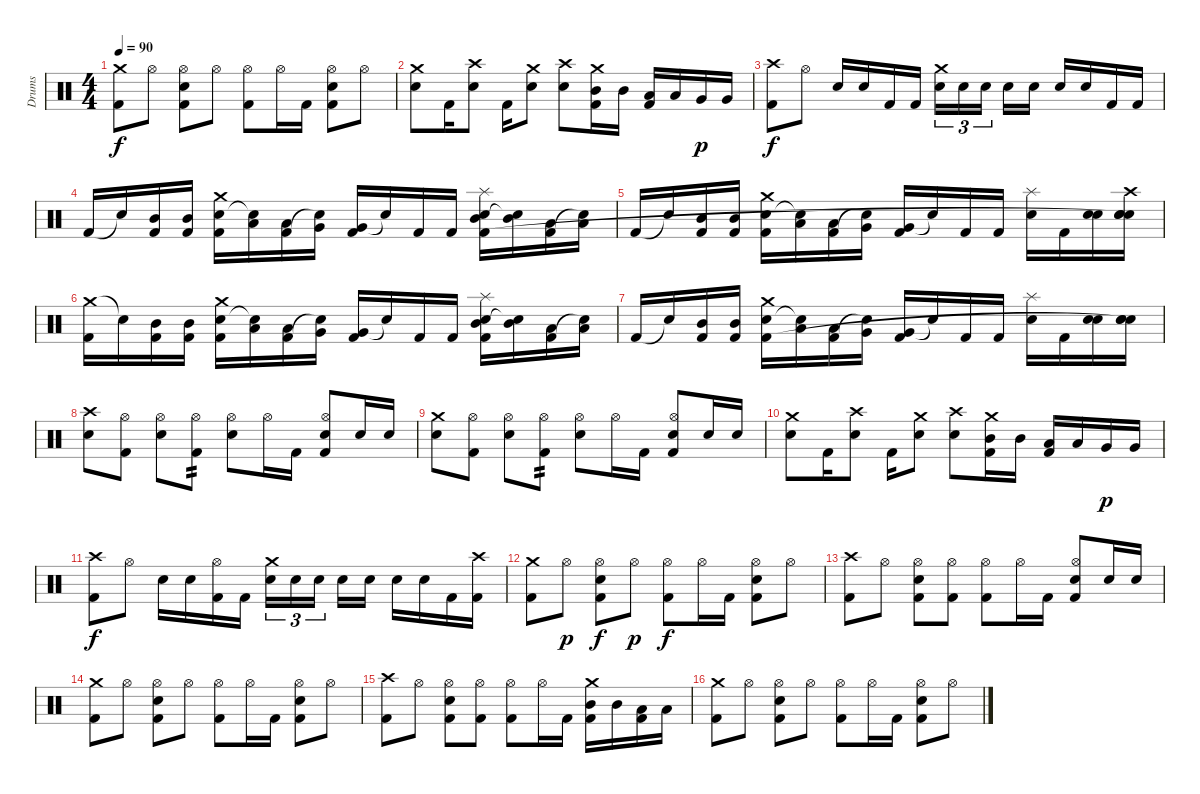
\track ("Drums" "Drums") {instrument percussion}
\staff {score}
\articulation defaults
\ts (4 4)
\tempo 90
\clef neutral
\ks c
("Crash medium (hit)" "Kick (hit) 2").8{dy f} "Hi-Hat (open)".8 ("Hi-Hat (open)" "Electric Snare (hit)" "Kick (hit) 2").8 "Hi-Hat (open)".8 ("Hi-Hat (open)" "Kick (hit) 2").8 "Hi-Hat (open)".16 "Kick (hit) 2".16 ("Hi-Hat (open)" "Electric Snare (hit)" "Kick (hit) 2").8 "Hi-Hat (open)".8 |
("Crash medium (hit)" "Electric Snare (hit)").8 "Kick (hit) 2".16 ("Crash high (hit)" "Electric Snare (hit)").8 "Kick (hit) 2".16 ("Crash medium (hit)" "Electric Snare (hit)").8 ("Crash high (hit)" "Electric Snare (hit)").8 ("Crash medium (hit)" "Mid Tom (hit)" "Kick (hit) 2").16 "Mid Tom (hit)".16 ("Low Tom (hit)" "Kick (hit) 2").16 "Low Tom (hit)".16 "Very Low Tom (hit)".16{dy p} "Very Low Tom (hit)".16 |
("Crash high (hit)" "Kick (hit) 2").8{dy f} "Hi-Hat (open)".8 "Electric Snare (hit)".16 "Electric Snare (hit)".16 "Kick (hit) 2".16 "Kick (hit) 2".16 ("Crash medium (hit)" "Electric Snare (hit)").16{tu (3 2)} "Electric Snare (hit)".16{tu (3 2)} "Electric Snare (hit)".16{tu (3 2) beam splitsecondary} "Electric Snare (hit)".16 "Electric Snare (hit)".16 "Electric Snare (hit)".16 "Electric Snare (hit)".16 "Kick (hit) 2".16 "Kick (hit) 2".16 |
"Kick (hit) 2".16 "Snare (hit)"{t}.16 ("Mid Tom (hit)" "Kick (hit) 2").16 ("Mid Tom (hit)" "Kick (hit) 2").16 ("Crash medium (hit)" "Electric Snare (hit)" "Kick (hit) 2").16 ("Low Tom (hit)" "Snare (hit)"{t}).16 ("Low Tom (hit)" "Kick (hit) 2").16 ("Very Low Tom (hit)" "Snare (hit)"{t}).16 ("Very Low Tom (hit)" "Kick (hit) 2").16 "Snare (hit)"{t}.16 "Kick (hit) 2".16 "Kick (hit) 2".16 ("Splash (hit)" "Mid Tom (hit)" "Electric Snare (hit)" "Kick (hit) 2").16 ("Mid Tom (hit)" "Snare (hit)"{t}).16 ("Low Floor Tom (hit)" "Kick (hit) 2").16 ("Low Floor Tom (hit)" "Snare (hit)"{t}).16 |
"Kick (hit) 2".16 "Snare (hit)"{t}.16 ("Mid Tom (hit)" "Kick (hit) 2").16 ("Mid Tom (hit)" "Kick (hit) 2").16 ("Crash medium (hit)" "Electric Snare (hit)" "Kick (hit) 2").16 ("Low Tom (hit)" "Snare (hit)"{t}).16 ("Low Tom (hit)" "Kick (hit) 2").16 ("Very Low Tom (hit)" "Snare (hit)"{t}).16 ("Very Low Tom (hit)" "Kick (hit) 2").16 "Snare (hit)"{t}.16 "Kick (hit) 2".16 "Kick (hit) 2".16 ("Splash (hit)" "Electric Snare (hit)").16 "Kick (hit) 2".16 ("Electric Snare (hit)" "Electric Snare (hit)").16 ("Crash high (hit)" "Electric Snare (hit)" "Electric Snare (hit)" "Snare (hit)"{t}).16 |
("Crash medium (hit)" "Kick (hit) 2").16 "Snare (hit)"{t}.16 ("Mid Tom (hit)" "Kick (hit) 2").16 ("Mid Tom (hit)" "Kick (hit) 2").16 ("Crash medium (hit)" "Electric Snare (hit)" "Kick (hit) 2").16 ("Low Tom (hit)" "Snare (hit)"{t}).16 ("Low Tom (hit)" "Kick (hit) 2").16 ("Very Low Tom (hit)" "Snare (hit)"{t}).16 ("Very Low Tom (hit)" "Kick (hit) 2").16 "Snare (hit)"{t}.16 "Kick (hit) 2".16 "Kick (hit) 2".16 ("Splash (hit)" "Mid Tom (hit)" "Electric Snare (hit)" "Kick (hit) 2").16 ("Mid Tom (hit)" "Snare (hit)"{t}).16 ("Low Floor Tom (hit)" "Kick (hit) 2").16 ("Low Floor Tom (hit)" "Snare (hit)"{t}).16 |
"Kick (hit) 2".16 "Snare (hit)"{t}.16 ("Mid Tom (hit)" "Kick (hit) 2").16 ("Mid Tom (hit)" "Kick (hit) 2").16 ("Crash medium (hit)" "Electric Snare (hit)" "Kick (hit) 2").16 ("Low Tom (hit)" "Snare (hit)"{t}).16 ("Low Tom (hit)" "Kick (hit) 2").16 ("Very Low Tom (hit)" "Snare (hit)"{t}).16 ("Very Low Tom (hit)" "Kick (hit) 2").16 "Snare (hit)"{t}.16 "Kick (hit) 2".16 "Kick (hit) 2".16 ("Splash (hit)" "Electric Snare (hit)").16 "Kick (hit) 2".16 ("Electric Snare (hit)" "Electric Snare (hit)").16 ("Electric Snare (hit)" "Electric Snare (hit)" "Snare (hit)"{t}).16 |
("Crash high (hit)" "Electric Snare (hit)").8 ("Hi-Hat (open)" "Kick (hit) 2").8 ("Hi-Hat (open)" "Electric Snare (hit)").8 ("Hi-Hat (open)" "Kick (hit) 2").8{tp 2} ("Hi-Hat (open)" "Electric Snare (hit)").8 "Hi-Hat (open)".16 "Kick (hit) 2".16 ("Hi-Hat (open)" "Electric Snare (hit)" "Kick (hit) 2").8 "Electric Snare (hit)".16 "Electric Snare (hit)".16 |
("Crash medium (hit)" "Electric Snare (hit)").8 ("Hi-Hat (open)" "Kick (hit) 2").8 ("Hi-Hat (open)" "Electric Snare (hit)").8 ("Hi-Hat (open)" "Kick (hit) 2").8{tp 2} ("Hi-Hat (open)" "Electric Snare (hit)").8 "Hi-Hat (open)".16 "Kick (hit) 2".16 ("Hi-Hat (open)" "Electric Snare (hit)" "Kick (hit) 2").8 "Electric Snare (hit)".16 "Electric Snare (hit)".16 |
("Crash medium (hit)" "Electric Snare (hit)").8 "Kick (hit) 2".16 ("Crash high (hit)" "Electric Snare (hit)").8 "Kick (hit) 2".16 ("Crash medium (hit)" "Electric Snare (hit)").8 ("Crash high (hit)" "Electric Snare (hit)").8 ("Crash medium (hit)" "Mid Tom (hit)" "Kick (hit) 2").16 "Mid Tom (hit)".16 ("Low Tom (hit)" "Kick (hit) 2").16 "Low Tom (hit)".16 "Very Low Tom (hit)".16{dy p} "Very Low Tom (hit)".16 |
("Crash high (hit)" "Kick (hit) 2").8{dy f} "Hi-Hat (open)".8 "Electric Snare (hit)".16 "Electric Snare (hit)".16 ("Hi-Hat (open)" "Kick (hit) 2").16 "Kick (hit) 2".16 ("Crash medium (hit)" "Electric Snare (hit)").16{tu (3 2)} "Electric Snare (hit)".16{tu (3 2)} "Electric Snare (hit)".16{tu (3 2) beam splitsecondary} "Electric Snare (hit)".16 "Electric Snare (hit)".16 "Electric Snare (hit)".16 "Electric Snare (hit)".16 "Kick (hit) 2".16 ("Crash high (hit)" "Kick (hit) 2").16 |
("Crash medium (hit)" "Kick (hit) 2").8 "Hi-Hat (open)".8{dy p} ("Hi-Hat (open)" "Electric Snare (hit)" "Kick (hit) 2").8{dy f} "Hi-Hat (open)".8{dy p} ("Hi-Hat (open)" "Kick (hit) 2").8{dy f} "Hi-Hat (open)".16 "Kick (hit) 2".16 ("Hi-Hat (open)" "Electric Snare (hit)" "Kick (hit) 2").8 "Hi-Hat (open)".8 |
("Crash high (hit)" "Kick (hit) 2").8 "Hi-Hat (open)".8 ("Hi-Hat (open)" "Electric Snare (hit)" "Kick (hit) 2").8 ("Hi-Hat (open)" "Kick (hit) 2").8 ("Hi-Hat (open)" "Kick (hit) 2").8 "Hi-Hat (open)".16 "Kick (hit) 2".16 ("Hi-Hat (open)" "Electric Snare (hit)" "Kick (hit) 2").8 "Electric Snare (hit)".16 "Electric Snare (hit)".16 |
("Crash medium (hit)" "Kick (hit) 2").8 "Hi-Hat (open)".8 ("Hi-Hat (open)" "Electric Snare (hit)" "Kick (hit) 2").8 "Hi-Hat (open)".8 ("Hi-Hat (open)" "Kick (hit) 2").8 "Hi-Hat (open)".16 "Kick (hit) 2".16 ("Hi-Hat (open)" "Electric Snare (hit)" "Kick (hit) 2").8 "Hi-Hat (open)".8 |
("Crash high (hit)" "Kick (hit) 2").8 "Hi-Hat (open)".8 ("Hi-Hat (open)" "Electric Snare (hit)" "Kick (hit) 2").8 ("Hi-Hat (open)" "Kick (hit) 2").8 ("Hi-Hat (open)" "Kick (hit) 2").8 "Hi-Hat (open)".16 "Kick (hit) 2".16 ("Crash medium (hit)" "Mid Tom (hit)" "Kick (hit) 2").16 "Mid Tom (hit)".16 ("Low Tom (hit)" "Kick (hit) 2").16 "Low Tom (hit)".16 |
("Crash medium (hit)" "Kick (hit) 2").8 "Hi-Hat (open)".8 ("Hi-Hat (open)" "Electric Snare (hit)" "Kick (hit) 2").8 "Hi-Hat (open)".8 ("Hi-Hat (open)" "Kick (hit) 2").8 "Hi-Hat (open)".16 "Kick (hit) 2".16 ("Hi-Hat (open)" "Electric Snare (hit)" "Kick (hit) 2").8 "Hi-Hat (open)".8
